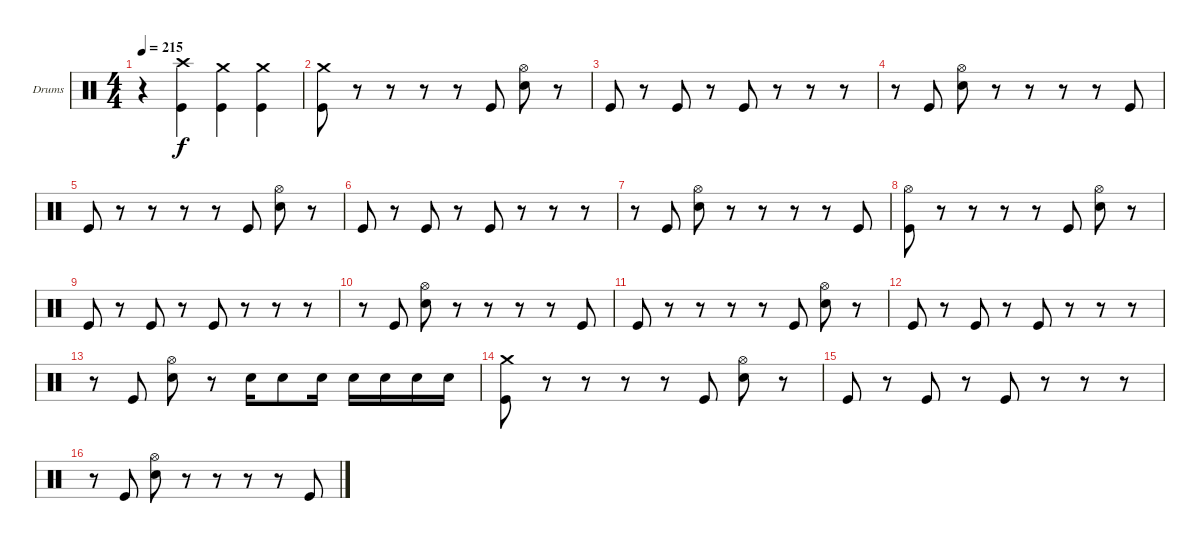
\bracketExtendMode groupsimilarinstruments
\firstSystemTrackNameOrientation horizontal
\otherSystemsTrackNameOrientation horizontal
\track ("Drumkit (Christoph)" "Drums") {instrument percussion}
\staff {score}
\articulation defaults
\ts (4 4)
\tempo 215
\clef neutral
\ks c
r.4{dy f} ("Crash high (hit)" "Kick (hit)").4 ("Crash medium (hit)" "Kick (hit)").4 ("Crash medium (hit)" "Kick (hit)").4 |
("Crash medium (hit)" "Kick (hit)").8 r.8 r.8 r.8 r.8 "Kick (hit)".8 ("Hi-Hat (open)" "Snare (hit) 2").8 r.8 |
"Kick (hit)".8 r.8 "Kick (hit)".8 r.8 "Kick (hit)".8 r.8 r.8 r.8 |
r.8 "Kick (hit)".8 ("Hi-Hat (open)" "Snare (hit) 2").8 r.8 r.8 r.8 r.8 "Kick (hit)".8 |
"Kick (hit)".8 r.8 r.8 r.8 r.8 "Kick (hit)".8 ("Hi-Hat (open)" "Snare (hit) 2").8 r.8 |
"Kick (hit)".8 r.8 "Kick (hit)".8 r.8 "Kick (hit)".8 r.8 r.8 r.8 |
r.8 "Kick (hit)".8 ("Hi-Hat (open)" "Snare (hit) 2").8 r.8 r.8 r.8 r.8 "Kick (hit)".8 |
("Hi-Hat (open)" "Kick (hit)").8 r.8 r.8 r.8 r.8 "Kick (hit)".8 ("Hi-Hat (open)" "Snare (hit) 2").8 r.8 |
"Kick (hit)".8 r.8 "Kick (hit)".8 r.8 "Kick (hit)".8 r.8 r.8 r.8 |
r.8 "Kick (hit)".8 ("Hi-Hat (open)" "Snare (hit) 2").8 r.8 r.8 r.8 r.8 "Kick (hit)".8 |
"Kick (hit)".8 r.8 r.8 r.8 r.8 "Kick (hit)".8 ("Hi-Hat (open)" "Snare (hit) 2").8 r.8 |
"Kick (hit)".8 r.8 "Kick (hit)".8 r.8 "Kick (hit)".8 r.8 r.8 r.8 |
r.8 "Kick (hit)".8 ("Hi-Hat (open)" "Snare (hit) 2").8 r.8 "Snare (hit) 2".16 "Snare (hit) 2".8 "Snare (hit) 2".16 "Snare (hit) 2".16 "Snare (hit) 2".16 "Snare (hit) 2".16 "Snare (hit) 2".16 |
("Crash medium (hit)" "Kick (hit)").8 r.8 r.8 r.8 r.8 "Kick (hit)".8 ("Hi-Hat (open)" "Snare (hit) 2").8 r.8 |
"Kick (hit)".8 r.8 "Kick (hit)".8 r.8 "Kick (hit)".8 r.8 r.8 r.8 |
r.8 "Kick (hit)".8 ("Hi-Hat (open)" "Snare (hit) 2").8 r.8 r.8 r.8 r.8 "Kick (hit)".8
